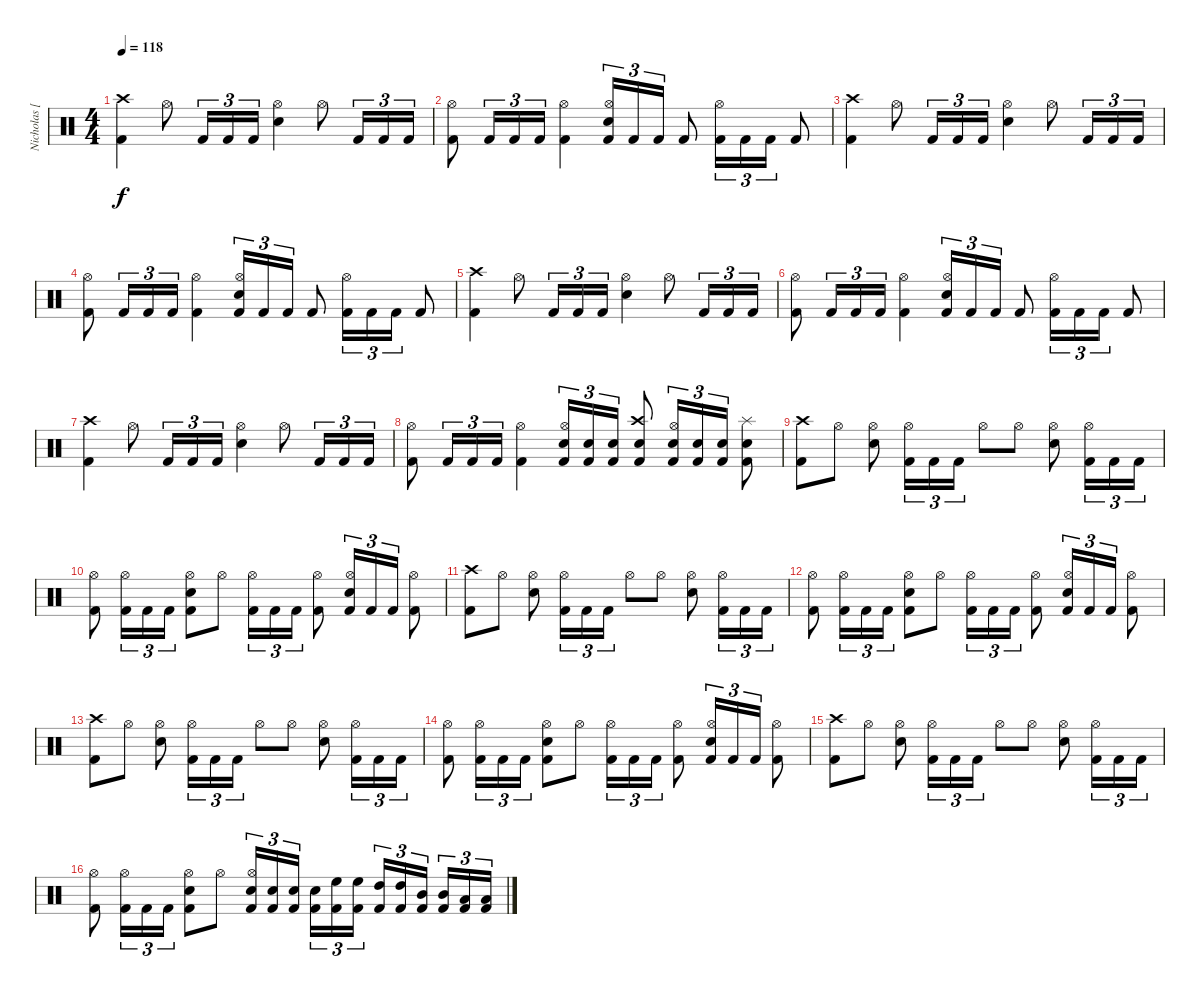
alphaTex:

\track ("Nicholas [Percussion]" "Nicholas [") {instrument percussion}
\staff {score}
\articulation defaults
\ts (4 4)
\tempo 118
\clef neutral
\ks c
("Kick (hit) 2" "Crash high (hit)").4{dy f} "Hi-Hat (open)".8 "Kick (hit) 2".16{tu (3 2)} "Kick (hit) 2".16{tu (3 2)} "Kick (hit) 2".16{tu (3 2)} ("Snare (hit) 2" "Hi-Hat (open)").4 "Hi-Hat (open)".8 "Kick (hit) 2".16{tu (3 2)} "Kick (hit) 2".16{tu (3 2)} "Kick (hit) 2".16{tu (3 2)} |
("Kick (hit) 2" "Hi-Hat (open)").8 "Kick (hit) 2".16{tu (3 2)} "Kick (hit) 2".16{tu (3 2)} "Kick (hit) 2".16{tu (3 2)} ("Kick (hit) 2" "Hi-Hat (open)").4 ("Kick (hit) 2" "Snare (hit) 2" "Hi-Hat (open)").16{tu (3 2)} "Kick (hit) 2".16{tu (3 2)} "Kick (hit) 2".16{tu (3 2)} "Kick (hit) 2".8 ("Kick (hit) 2" "Hi-Hat (open)").16{tu (3 2)} "Kick (hit) 2".16{tu (3 2)} "Kick (hit) 2".16{tu (3 2)} "Kick (hit) 2".8 |
("Kick (hit) 2" "Crash high (hit)").4 "Hi-Hat (open)".8 "Kick (hit) 2".16{tu (3 2)} "Kick (hit) 2".16{tu (3 2)} "Kick (hit) 2".16{tu (3 2)} ("Snare (hit) 2" "Hi-Hat (open)").4 "Hi-Hat (open)".8 "Kick (hit) 2".16{tu (3 2)} "Kick (hit) 2".16{tu (3 2)} "Kick (hit) 2".16{tu (3 2)} |
("Kick (hit) 2" "Hi-Hat (open)").8 "Kick (hit) 2".16{tu (3 2)} "Kick (hit) 2".16{tu (3 2)} "Kick (hit) 2".16{tu (3 2)} ("Kick (hit) 2" "Hi-Hat (open)").4 ("Kick (hit) 2" "Snare (hit) 2" "Hi-Hat (open)").16{tu (3 2)} "Kick (hit) 2".16{tu (3 2)} "Kick (hit) 2".16{tu (3 2)} "Kick (hit) 2".8 ("Kick (hit) 2" "Hi-Hat (open)").16{tu (3 2)} "Kick (hit) 2".16{tu (3 2)} "Kick (hit) 2".16{tu (3 2)} "Kick (hit) 2".8 |
("Kick (hit) 2" "Crash high (hit)").4 "Hi-Hat (open)".8 "Kick (hit) 2".16{tu (3 2)} "Kick (hit) 2".16{tu (3 2)} "Kick (hit) 2".16{tu (3 2)} ("Snare (hit) 2" "Hi-Hat (open)").4 "Hi-Hat (open)".8 "Kick (hit) 2".16{tu (3 2)} "Kick (hit) 2".16{tu (3 2)} "Kick (hit) 2".16{tu (3 2)} |
("Kick (hit) 2" "Hi-Hat (open)").8 "Kick (hit) 2".16{tu (3 2)} "Kick (hit) 2".16{tu (3 2)} "Kick (hit) 2".16{tu (3 2)} ("Kick (hit) 2" "Hi-Hat (open)").4 ("Kick (hit) 2" "Snare (hit) 2" "Hi-Hat (open)").16{tu (3 2)} "Kick (hit) 2".16{tu (3 2)} "Kick (hit) 2".16{tu (3 2)} "Kick (hit) 2".8 ("Kick (hit) 2" "Hi-Hat (open)").16{tu (3 2)} "Kick (hit) 2".16{tu (3 2)} "Kick (hit) 2".16{tu (3 2)} "Kick (hit) 2".8 |
("Kick (hit) 2" "Crash high (hit)").4 "Hi-Hat (open)".8 "Kick (hit) 2".16{tu (3 2)} "Kick (hit) 2".16{tu (3 2)} "Kick (hit) 2".16{tu (3 2)} ("Snare (hit) 2" "Hi-Hat (open)").4 "Hi-Hat (open)".8 "Kick (hit) 2".16{tu (3 2)} "Kick (hit) 2".16{tu (3 2)} "Kick (hit) 2".16{tu (3 2)} |
("Kick (hit) 2" "Hi-Hat (open)").8 "Kick (hit) 2".16{tu (3 2)} "Kick (hit) 2".16{tu (3 2)} "Kick (hit) 2".16{tu (3 2)} ("Kick (hit) 2" "Hi-Hat (open)").4 ("Kick (hit) 2" "Snare (hit) 2" "Hi-Hat (open)").16{tu (3 2)} ("Kick (hit) 2" "Snare (hit) 2").16{tu (3 2)} ("Kick (hit) 2" "Snare (hit) 2").16{tu (3 2)} ("Kick (hit) 2" "Snare (hit) 2" "Crash high (hit)").8 ("Kick (hit) 2" "Snare (hit) 2" "Hi-Hat (open)").16{tu (3 2)} ("Kick (hit) 2" "Snare (hit) 2").16{tu (3 2)} ("Kick (hit) 2" "Snare (hit) 2").16{tu (3 2)} ("Kick (hit) 2" "Snare (hit) 2" "Splash (hit)").8 |
("Kick (hit) 2" "Crash high (hit)").8 "Hi-Hat (open)".8 ("Snare (hit) 2" "Hi-Hat (open)").8 ("Kick (hit) 2" "Hi-Hat (open)").16{tu (3 2)} "Kick (hit) 2".16{tu (3 2)} "Kick (hit) 2".16{tu (3 2)} "Hi-Hat (open)".8 "Hi-Hat (open)".8 ("Snare (hit) 2" "Hi-Hat (open)").8 ("Kick (hit) 2" "Hi-Hat (open)").16{tu (3 2)} "Kick (hit) 2".16{tu (3 2)} "Kick (hit) 2".16{tu (3 2)} |
("Kick (hit) 2" "Hi-Hat (open)").8 ("Kick (hit) 2" "Hi-Hat (open)").16{tu (3 2)} "Kick (hit) 2".16{tu (3 2)} "Kick (hit) 2".16{tu (3 2)} ("Kick (hit) 2" "Snare (hit) 2" "Hi-Hat (open)").8 "Hi-Hat (open)".8 ("Kick (hit) 2" "Hi-Hat (open)").16{tu (3 2)} "Kick (hit) 2".16{tu (3 2)} "Kick (hit) 2".16{tu (3 2)} ("Kick (hit) 2" "Hi-Hat (open)").8 ("Kick (hit) 2" "Snare (hit) 2" "Hi-Hat (open)").16{tu (3 2)} "Kick (hit) 2".16{tu (3 2)} "Kick (hit) 2".16{tu (3 2)} ("Kick (hit) 2" "Hi-Hat (open)").8 |
("Kick (hit) 2" "Crash high (hit)").8 "Hi-Hat (open)".8 ("Snare (hit) 2" "Hi-Hat (open)").8 ("Kick (hit) 2" "Hi-Hat (open)").16{tu (3 2)} "Kick (hit) 2".16{tu (3 2)} "Kick (hit) 2".16{tu (3 2)} "Hi-Hat (open)".8 "Hi-Hat (open)".8 ("Snare (hit) 2" "Hi-Hat (open)").8 ("Kick (hit) 2" "Hi-Hat (open)").16{tu (3 2)} "Kick (hit) 2".16{tu (3 2)} "Kick (hit) 2".16{tu (3 2)} |
("Kick (hit) 2" "Hi-Hat (open)").8 ("Kick (hit) 2" "Hi-Hat (open)").16{tu (3 2)} "Kick (hit) 2".16{tu (3 2)} "Kick (hit) 2".16{tu (3 2)} ("Kick (hit) 2" "Snare (hit) 2" "Hi-Hat (open)").8 "Hi-Hat (open)".8 ("Kick (hit) 2" "Hi-Hat (open)").16{tu (3 2)} "Kick (hit) 2".16{tu (3 2)} "Kick (hit) 2".16{tu (3 2)} ("Kick (hit) 2" "Hi-Hat (open)").8 ("Kick (hit) 2" "Snare (hit) 2" "Hi-Hat (open)").16{tu (3 2)} "Kick (hit) 2".16{tu (3 2)} "Kick (hit) 2".16{tu (3 2)} ("Kick (hit) 2" "Hi-Hat (open)").8 |
("Kick (hit) 2" "Crash high (hit)").8 "Hi-Hat (open)".8 ("Snare (hit) 2" "Hi-Hat (open)").8 ("Kick (hit) 2" "Hi-Hat (open)").16{tu (3 2)} "Kick (hit) 2".16{tu (3 2)} "Kick (hit) 2".16{tu (3 2)} "Hi-Hat (open)".8 "Hi-Hat (open)".8 ("Snare (hit) 2" "Hi-Hat (open)").8 ("Kick (hit) 2" "Hi-Hat (open)").16{tu (3 2)} "Kick (hit) 2".16{tu (3 2)} "Kick (hit) 2".16{tu (3 2)} |
("Kick (hit) 2" "Hi-Hat (open)").8 ("Kick (hit) 2" "Hi-Hat (open)").16{tu (3 2)} "Kick (hit) 2".16{tu (3 2)} "Kick (hit) 2".16{tu (3 2)} ("Kick (hit) 2" "Snare (hit) 2" "Hi-Hat (open)").8 "Hi-Hat (open)".8 ("Kick (hit) 2" "Hi-Hat (open)").16{tu (3 2)} "Kick (hit) 2".16{tu (3 2)} "Kick (hit) 2".16{tu (3 2)} ("Kick (hit) 2" "Hi-Hat (open)").8 ("Kick (hit) 2" "Snare (hit) 2" "Hi-Hat (open)").16{tu (3 2)} "Kick (hit) 2".16{tu (3 2)} "Kick (hit) 2".16{tu (3 2)} ("Kick (hit) 2" "Hi-Hat (open)").8 |
("Kick (hit) 2" "Crash high (hit)").8 "Hi-Hat (open)".8 ("Snare (hit) 2" "Hi-Hat (open)").8 ("Kick (hit) 2" "Hi-Hat (open)").16{tu (3 2)} "Kick (hit) 2".16{tu (3 2)} "Kick (hit) 2".16{tu (3 2)} "Hi-Hat (open)".8 "Hi-Hat (open)".8 ("Snare (hit) 2" "Hi-Hat (open)").8 ("Kick (hit) 2" "Hi-Hat (open)").16{tu (3 2)} "Kick (hit) 2".16{tu (3 2)} "Kick (hit) 2".16{tu (3 2)} |
("Kick (hit) 2" "Hi-Hat (open)").8 ("Kick (hit) 2" "Hi-Hat (open)").16{tu (3 2)} "Kick (hit) 2".16{tu (3 2)} "Kick (hit) 2".16{tu (3 2)} ("Kick (hit) 2" "Snare (hit) 2" "Hi-Hat (open)").8 "Hi-Hat (open)".8 ("Kick (hit) 2" "Snare (hit) 2" "Hi-Hat (open)").16{tu (3 2)} ("Kick (hit) 2" "Snare (hit) 2").16{tu (3 2)} ("Kick (hit) 2" "Snare (hit) 2").16{tu (3 2)} ("Kick (hit) 2" "Snare (hit) 2").16{tu (3 2)} ("Kick (hit) 2" "High Floor Tom (hit)").16{tu (3 2)} ("Kick (hit) 2" "High Floor Tom (hit)").16{tu (3 2)} ("Kick (hit) 2" "High Tom (hit)").16{tu (3 2)} ("Kick (hit) 2" "High Tom (hit)").16{tu (3 2)} ("Kick (hit) 2" "Mid Tom (hit)").16{tu (3 2)} ("Kick (hit) 2" "Mid Tom (hit)").16{tu (3 2)} ("Kick (hit) 2" "Low Tom (hit)").16{tu (3 2)} ("Kick (hit) 2" "Low Tom (hit)").16{tu (3 2)}
